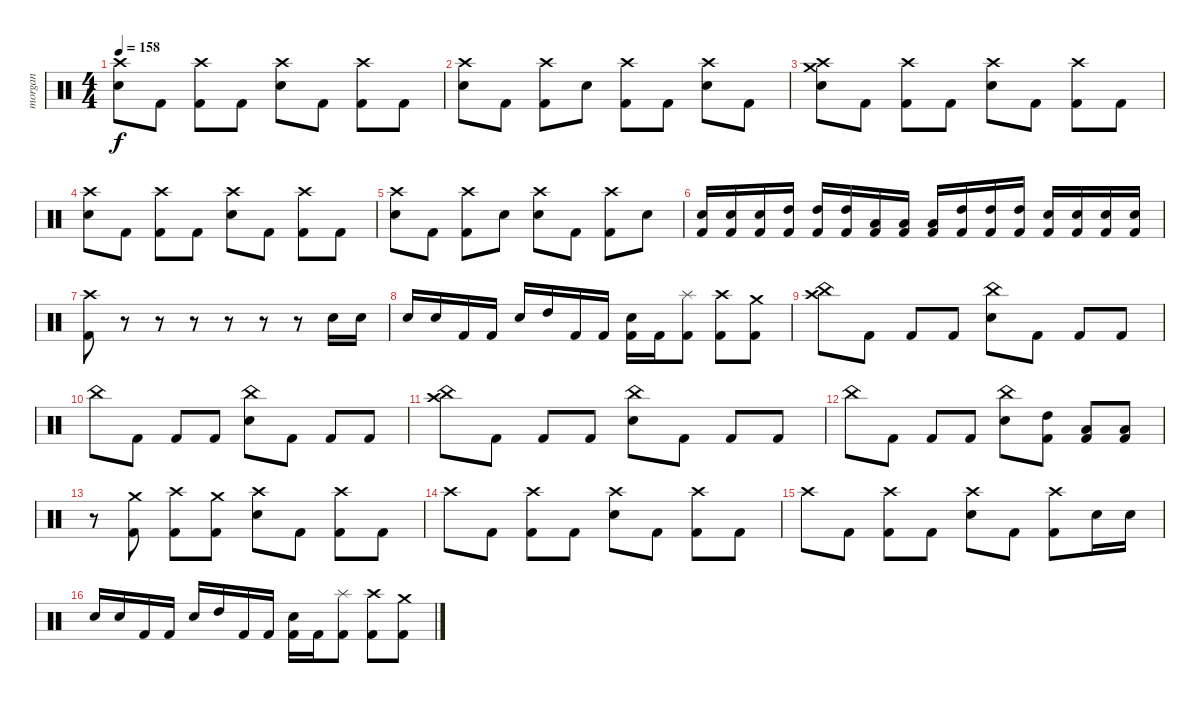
\track ("morgan" "morgan") {instrument percussion}
\staff {score}
\articulation defaults
\ts (4 4)
\tempo 158
\clef neutral
\ks c
("Crash high (hit)" "Electric Snare (hit)").8{dy f} "Kick (hit) 2".8 ("Crash high (hit)" "Kick (hit) 2").8 "Kick (hit) 2".8 ("Crash high (hit)" "Electric Snare (hit)").8 "Kick (hit) 2".8 ("Crash high (hit)" "Kick (hit) 2").8 "Kick (hit) 2".8 |
("Crash high (hit)" "Electric Snare (hit)").8 "Kick (hit) 2".8 ("Crash high (hit)" "Kick (hit) 2").8 "Electric Snare (hit)".8 ("Crash high (hit)" "Kick (hit) 2").8 "Kick (hit) 2".8 ("Crash high (hit)" "Electric Snare (hit)").8 "Kick (hit) 2".8 |
("Crash medium (hit)" "Crash high (hit)" "Electric Snare (hit)").8 "Kick (hit) 2".8 ("Crash high (hit)" "Kick (hit) 2").8 "Kick (hit) 2".8 ("Crash high (hit)" "Electric Snare (hit)").8 "Kick (hit) 2".8 ("Crash high (hit)" "Kick (hit) 2").8 "Kick (hit) 2".8 |
("Crash high (hit)" "Electric Snare (hit)").8 "Kick (hit) 2".8 ("Crash high (hit)" "Kick (hit) 2").8 "Kick (hit) 2".8 ("Crash high (hit)" "Electric Snare (hit)").8 "Kick (hit) 2".8 ("Crash high (hit)" "Kick (hit) 2").8 "Kick (hit) 2".8 |
("Crash high (hit)" "Electric Snare (hit)").8 "Kick (hit) 2".8 ("Crash high (hit)" "Kick (hit) 2").8 "Electric Snare (hit)".8 ("Crash high (hit)" "Electric Snare (hit)").8 "Kick (hit) 2".8 ("Crash high (hit)" "Kick (hit) 2").8 "Electric Snare (hit)".8 |
("Electric Snare (hit)" "Kick (hit) 2").16 ("Electric Snare (hit)" "Kick (hit) 2").16 ("Electric Snare (hit)" "Kick (hit) 2").16 ("High Tom (hit)" "Kick (hit) 2").16 ("High Tom (hit)" "Kick (hit) 2").16 ("High Tom (hit)" "Kick (hit) 2").16 ("Low Tom (hit)" "Kick (hit) 2").16 ("Low Tom (hit)" "Kick (hit) 2").16 ("Low Tom (hit)" "Kick (hit) 2").16 ("High Tom (hit)" "Kick (hit) 2").16 ("High Tom (hit)" "Kick (hit) 2").16 ("High Tom (hit)" "Kick (hit) 2").16 ("Electric Snare (hit)" "Kick (hit) 2").16 ("Electric Snare (hit)" "Kick (hit) 2").16 ("Electric Snare (hit)" "Kick (hit) 2").16 ("Electric Snare (hit)" "Kick (hit) 2").16 |
("Crash high (hit)" "Kick (hit) 2").8 r.8 r.8 r.8 r.8 r.8 r.8 "Electric Snare (hit)".16 "Electric Snare (hit)".16 |
"Electric Snare (hit)".16 "Electric Snare (hit)".16 "Kick (hit) 2".16 "Kick (hit) 2".16 "Electric Snare (hit)".16 "High Tom (hit)".16 "Kick (hit) 2".16 "Kick (hit) 2".16 ("Electric Snare (hit)" "Kick (hit) 2").16 "Kick (hit) 2".16 ("Splash (hit)" "Kick (hit) 2").8 ("Crash high (hit)" "Kick (hit) 2").8 ("Crash medium (hit)" "Kick (hit) 2").8 |
("Crash high (hit)" "China (hit)").8 "Kick (hit) 2".8 "Kick (hit) 2".8 "Kick (hit) 2".8 ("China (hit)" "Electric Snare (hit)").8 "Kick (hit) 2".8 "Kick (hit) 2".8 "Kick (hit) 2".8 |
"China (hit)".8 "Kick (hit) 2".8 "Kick (hit) 2".8 "Kick (hit) 2".8 ("China (hit)" "Electric Snare (hit)").8 "Kick (hit) 2".8 "Kick (hit) 2".8 "Kick (hit) 2".8 |
("Crash high (hit)" "China (hit)").8 "Kick (hit) 2".8 "Kick (hit) 2".8 "Kick (hit) 2".8 ("China (hit)" "Electric Snare (hit)").8 "Kick (hit) 2".8 "Kick (hit) 2".8 "Kick (hit) 2".8 |
"China (hit)".8 "Kick (hit) 2".8 "Kick (hit) 2".8 "Kick (hit) 2".8 ("China (hit)" "Electric Snare (hit)").8 ("High Tom (hit)" "Kick (hit) 2").8 ("Low Tom (hit)" "Kick (hit) 2").8 ("Low Tom (hit)" "Kick (hit) 2").8 |
r.8 ("Crash medium (hit)" "Kick (hit) 2").8 ("Crash high (hit)" "Kick (hit) 2").8 ("Crash medium (hit)" "Kick (hit) 2").8 ("Crash high (hit)" "Electric Snare (hit)").8 "Kick (hit) 2".8 ("Crash high (hit)" "Kick (hit) 2").8 "Kick (hit) 2".8 |
"Crash high (hit)".8 "Kick (hit) 2".8 ("Crash high (hit)" "Kick (hit) 2").8 "Kick (hit) 2".8 ("Crash high (hit)" "Electric Snare (hit)").8 "Kick (hit) 2".8 ("Crash high (hit)" "Kick (hit) 2").8 "Kick (hit) 2".8 |
"Crash high (hit)".8 "Kick (hit) 2".8 ("Crash high (hit)" "Kick (hit) 2").8 "Kick (hit) 2".8 ("Crash high (hit)" "Electric Snare (hit)").8 "Kick (hit) 2".8 ("Crash high (hit)" "Kick (hit) 2").8 "Electric Snare (hit)".16 "Electric Snare (hit)".16 |
"Electric Snare (hit)".16 "Electric Snare (hit)".16 "Kick (hit) 2".16 "Kick (hit) 2".16 "Electric Snare (hit)".16 "High Tom (hit)".16 "Kick (hit) 2".16 "Kick (hit) 2".16 ("Electric Snare (hit)" "Kick (hit) 2").16 "Kick (hit) 2".16 ("Splash (hit)" "Kick (hit) 2").8 ("Crash high (hit)" "Kick (hit) 2").8 ("Crash medium (hit)" "Kick (hit) 2").8
